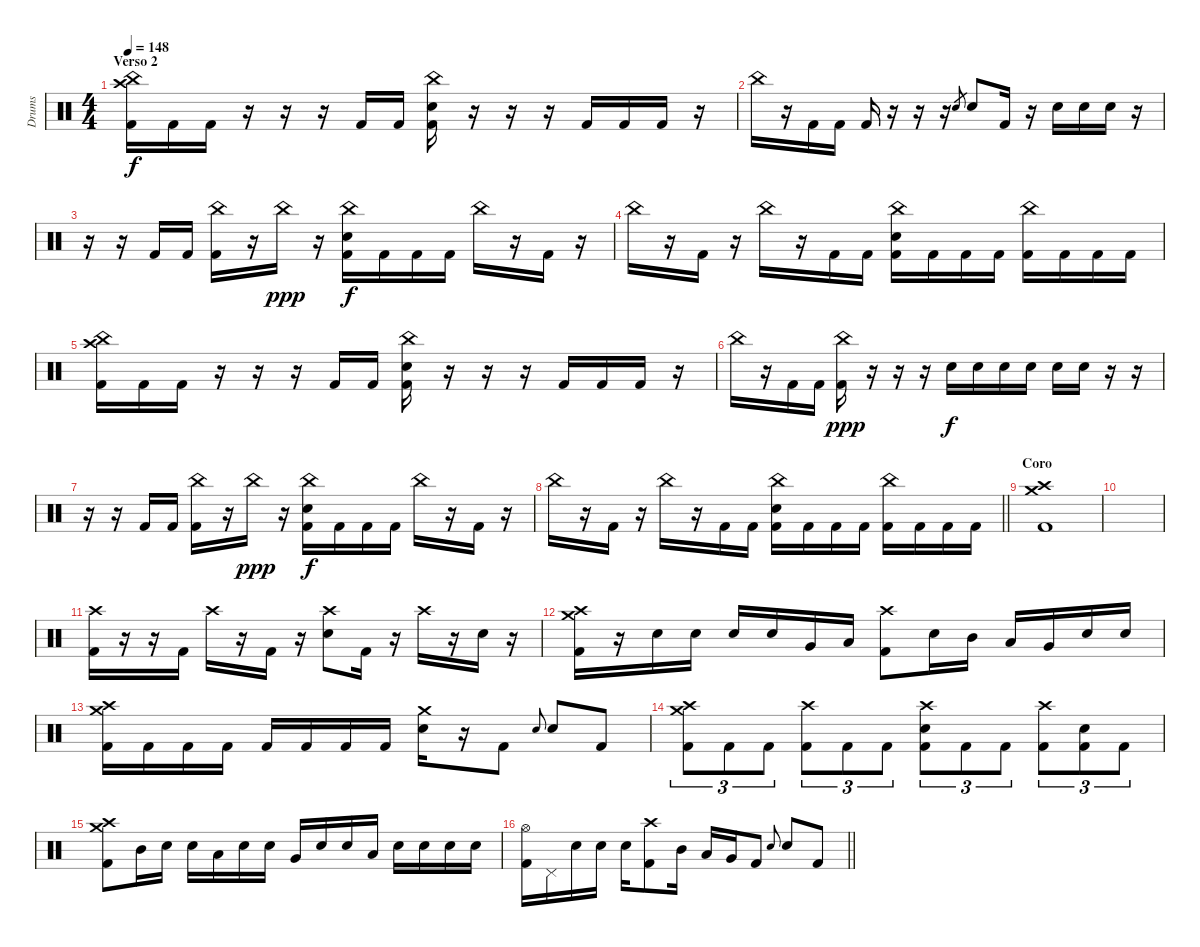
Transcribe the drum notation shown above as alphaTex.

\track ("Drums" "Drums") {instrument percussion}
\staff {score}
\articulation defaults
\ts (4 4)
\section ("" "Verso 2")
\tempo 148
\clef neutral
\ks c
("China (hit)" "Crash high (hit)" "Kick (hit) 2").16{dy f} "Kick (hit) 2".16 "Kick (hit) 2".16 r.16 r.16 r.16 "Kick (hit) 2".16 "Kick (hit) 2".16 ("China (hit)" "Electric Snare (hit)" "Kick (hit) 2").16 r.16 r.16 r.16 "Kick (hit) 2".16 "Kick (hit) 2".16 "Kick (hit) 2".16 r.16 |
"China (hit)".16 r.16 "Kick (hit) 2".16 "Kick (hit) 2".16 "Kick (hit) 2".16 r.16 r.16 r.16 "Electric Snare (hit)".8{gr} "Electric Snare (hit)".8 "Kick (hit) 2".16 r.16 "Electric Snare (hit)".16 "Electric Snare (hit)".16 "Electric Snare (hit)".16 r.16 |
r.16 r.16 "Kick (hit) 2".16 "Kick (hit) 2".16 ("China (hit)" "Kick (hit) 2").16 r.16 "China (hit)".16{dy ppp} r.16 ("China (hit)" "Electric Snare (hit)" "Kick (hit) 2").16{dy f} "Kick (hit) 2".16 "Kick (hit) 2".16 "Kick (hit) 2".16 "China (hit)".16 r.16 "Kick (hit) 2".16 r.16 |
"China (hit)".16 r.16 "Kick (hit) 2".16 r.16 "China (hit)".16 r.16 "Kick (hit) 2".16 "Kick (hit) 2".16 ("China (hit)" "Electric Snare (hit)" "Kick (hit) 2").16 "Kick (hit) 2".16 "Kick (hit) 2".16 "Kick (hit) 2".16 ("China (hit)" "Kick (hit) 2").16 "Kick (hit) 2".16 "Kick (hit) 2".16 "Kick (hit) 2".16 |
("China (hit)" "Crash high (hit)" "Kick (hit) 2").16 "Kick (hit) 2".16 "Kick (hit) 2".16 r.16 r.16 r.16 "Kick (hit) 2".16 "Kick (hit) 2".16 ("China (hit)" "Electric Snare (hit)" "Kick (hit) 2").16 r.16 r.16 r.16 "Kick (hit) 2".16 "Kick (hit) 2".16 "Kick (hit) 2".16 r.16 |
"China (hit)".16 r.16 "Kick (hit) 2".16 "Kick (hit) 2".16 ("China (hit)" "Kick (hit) 2").16{dy ppp} r.16 r.16 r.16 "Electric Snare (hit)".16{dy f} "Electric Snare (hit)".16 "Electric Snare (hit)".16 "Electric Snare (hit)".16 "Electric Snare (hit)".16 "Electric Snare (hit)".16 r.16 r.16 |
r.16 r.16 "Kick (hit) 2".16 "Kick (hit) 2".16 ("China (hit)" "Kick (hit) 2").16 r.16 "China (hit)".16{dy ppp} r.16 ("China (hit)" "Electric Snare (hit)" "Kick (hit) 2").16{dy f} "Kick (hit) 2".16 "Kick (hit) 2".16 "Kick (hit) 2".16 "China (hit)".16 r.16 "Kick (hit) 2".16 r.16 |
\barLineRight lightlight "China (hit)".16
r.16 "Kick (hit) 2".16 r.16 "China (hit)".16 r.16 "Kick (hit) 2".16 "Kick (hit) 2".16 ("China (hit)" "Electric Snare (hit)" "Kick (hit) 2").16 "Kick (hit) 2".16 "Kick (hit) 2".16 "Kick (hit) 2".16 ("China (hit)" "Kick (hit) 2").16 "Kick (hit) 2".16 "Kick (hit) 2".16 "Kick (hit) 2".16 |
\section ("" "Coro")
("Crash medium (hit)" "Crash high (hit)" "Kick (hit) 2").1 |
|
("Crash high (hit)" "Kick (hit) 2").16 r.16 r.16 "Kick (hit) 2".16 "Crash high (hit)".16 r.16 "Kick (hit) 2".16 r.16 ("Crash high (hit)" "Electric Snare (hit)").8 "Kick (hit) 2".16 r.16 "Crash high (hit)".16 r.16 "Electric Snare (hit)".16 r.16 |
("Crash medium (hit)" "Crash high (hit)" "Kick (hit) 2").16 r.16 "Electric Snare (hit)".16 "Electric Snare (hit)".16 "Electric Snare (hit)".16 "Electric Snare (hit)".16 "Very Low Tom (hit)".16 "Low Floor Tom (hit)".16 ("Crash high (hit)" "Kick (hit) 2").8 "Electric Snare (hit)".16 "Mid Tom (hit)".16 "Low Tom (hit)".16 "Very Low Tom (hit)".16 "Electric Snare (hit)".16 "Electric Snare (hit)".16 |
("Crash medium (hit)" "Crash high (hit)" "Kick (hit) 2").16 "Kick (hit) 2".16 "Kick (hit) 2".16 "Kick (hit) 2".16 "Kick (hit) 2".16 "Kick (hit) 2".16 "Kick (hit) 2".16 "Kick (hit) 2".16 ("Crash medium (hit)" "Electric Snare (hit)").16 r.16 "Kick (hit) 2".8 "Electric Snare (hit)".8{gr onbeat} "Electric Snare (hit)".8 "Kick (hit) 2".8 |
("Crash high (hit)" "Crash medium (hit)" "Kick (hit) 2").8{tu (3 2)} "Kick (hit) 2".8{tu (3 2)} "Kick (hit) 2".8{tu (3 2)} ("Crash high (hit)" "Kick (hit) 2").8{tu (3 2)} "Kick (hit) 2".8{tu (3 2)} "Kick (hit) 2".8{tu (3 2)} ("Crash high (hit)" "Electric Snare (hit)" "Kick (hit) 2").8{tu (3 2)} "Kick (hit) 2".8{tu (3 2)} "Kick (hit) 2".8{tu (3 2)} ("Crash high (hit)" "Kick (hit) 2").8{tu (3 2)} ("Electric Snare (hit)" "Kick (hit) 2").8{tu (3 2)} "Kick (hit) 2".8{tu (3 2)} |
("Crash high (hit)" "Crash medium (hit)" "Kick (hit) 2").8 "Mid Tom (hit)".16 "Electric Snare (hit)".16 "Electric Snare (hit)".16 "Low Tom (hit)".16 "Electric Snare (hit)".16 "Electric Snare (hit)".16 "Very Low Tom (hit)".16 "Electric Snare (hit)".16 "Electric Snare (hit)".16 "Low Floor Tom (hit)".16 "Electric Snare (hit)".16 "Electric Snare (hit)".16 "Electric Snare (hit)".16 "Electric Snare (hit)".16 |
\barLineRight lightlight
("Hi-Hat (open)" "Kick (hit) 2").16 "Pedal Hi-Hat (hit)".16 "Electric Snare (hit)".16 "Electric Snare (hit)".16 "Electric Snare (hit)".16 ("Crash high (hit)" "Kick (hit) 2").8 "Mid Tom (hit)".16 "Low Tom (hit)".16 "Very Low Tom (hit)".16 "Kick (hit) 2".8 "Electric Snare (hit)".8{gr onbeat} "Electric Snare (hit)".8 "Kick (hit) 2".8
